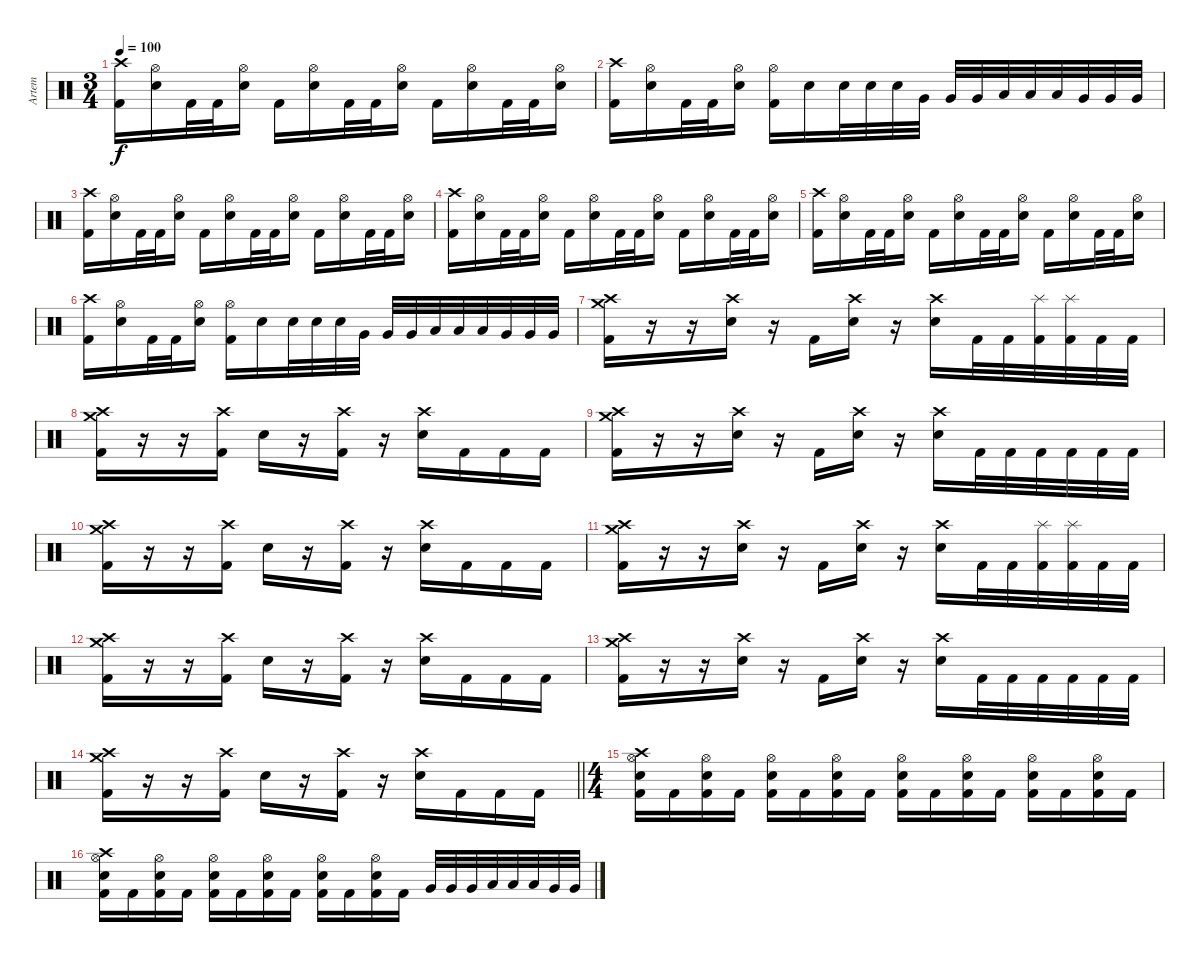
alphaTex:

\track ("Artem" "Artem") {instrument percussion}
\staff {score}
\articulation defaults
\ts (3 4)
\tempo 100
\clef neutral
\ks c
("Kick (hit) 2" "Crash high (hit)").16{dy f} ("Snare (hit) 2" "Hi-Hat (open)").16 "Kick (hit) 2".32 "Kick (hit) 2".32 ("Snare (hit) 2" "Hi-Hat (open)").16 "Kick (hit) 2".16 ("Snare (hit) 2" "Hi-Hat (open)").16 "Kick (hit) 2".32 "Kick (hit) 2".32 ("Snare (hit) 2" "Hi-Hat (open)").16 "Kick (hit) 2".16 ("Snare (hit) 2" "Hi-Hat (open)").16 "Kick (hit) 2".32 "Kick (hit) 2".32 ("Snare (hit) 2" "Hi-Hat (open)").16 |
("Kick (hit) 2" "Crash high (hit)").16 ("Snare (hit) 2" "Hi-Hat (open)").16 "Kick (hit) 2".32 "Kick (hit) 2".32 ("Snare (hit) 2" "Hi-Hat (open)").16 ("Kick (hit) 2" "Hi-Hat (open)").16 "Snare (hit) 2".16 "Snare (hit) 2".32 "Snare (hit) 2".32 "Snare (hit) 2".32 "Very Low Tom (hit)".32 "Very Low Tom (hit)".32 "Very Low Tom (hit)".32 "Low Floor Tom (hit)".32 "Low Floor Tom (hit)".32 "Low Floor Tom (hit)".32 "Very Low Tom (hit)".32 "Very Low Tom (hit)".32 "Very Low Tom (hit)".32 |
("Kick (hit) 2" "Crash high (hit)").16 ("Snare (hit) 2" "Hi-Hat (open)").16 "Kick (hit) 2".32 "Kick (hit) 2".32 ("Snare (hit) 2" "Hi-Hat (open)").16 "Kick (hit) 2".16 ("Snare (hit) 2" "Hi-Hat (open)").16 "Kick (hit) 2".32 "Kick (hit) 2".32 ("Snare (hit) 2" "Hi-Hat (open)").16 "Kick (hit) 2".16 ("Snare (hit) 2" "Hi-Hat (open)").16 "Kick (hit) 2".32 "Kick (hit) 2".32 ("Snare (hit) 2" "Hi-Hat (open)").16 |
("Kick (hit) 2" "Crash high (hit)").16 ("Snare (hit) 2" "Hi-Hat (open)").16 "Kick (hit) 2".32 "Kick (hit) 2".32 ("Snare (hit) 2" "Hi-Hat (open)").16 "Kick (hit) 2".16 ("Snare (hit) 2" "Hi-Hat (open)").16 "Kick (hit) 2".32 "Kick (hit) 2".32 ("Snare (hit) 2" "Hi-Hat (open)").16 "Kick (hit) 2".16 ("Snare (hit) 2" "Hi-Hat (open)").16 "Kick (hit) 2".32 "Kick (hit) 2".32 ("Snare (hit) 2" "Hi-Hat (open)").16 |
("Kick (hit) 2" "Crash high (hit)").16 ("Snare (hit) 2" "Hi-Hat (open)").16 "Kick (hit) 2".32 "Kick (hit) 2".32 ("Snare (hit) 2" "Hi-Hat (open)").16 "Kick (hit) 2".16 ("Snare (hit) 2" "Hi-Hat (open)").16 "Kick (hit) 2".32 "Kick (hit) 2".32 ("Snare (hit) 2" "Hi-Hat (open)").16 "Kick (hit) 2".16 ("Snare (hit) 2" "Hi-Hat (open)").16 "Kick (hit) 2".32 "Kick (hit) 2".32 ("Snare (hit) 2" "Hi-Hat (open)").16 |
("Kick (hit) 2" "Crash high (hit)").16 ("Snare (hit) 2" "Hi-Hat (open)").16 "Kick (hit) 2".32 "Kick (hit) 2".32 ("Snare (hit) 2" "Hi-Hat (open)").16 ("Kick (hit) 2" "Hi-Hat (open)").16 "Snare (hit) 2".16 "Snare (hit) 2".32 "Snare (hit) 2".32 "Snare (hit) 2".32 "Very Low Tom (hit)".32 "Very Low Tom (hit)".32 "Very Low Tom (hit)".32 "Low Floor Tom (hit)".32 "Low Floor Tom (hit)".32 "Low Floor Tom (hit)".32 "Very Low Tom (hit)".32 "Very Low Tom (hit)".32 "Very Low Tom (hit)".32 |
("Kick (hit) 2" "Crash high (hit)" "Crash medium (hit)").16 r.16 r.16 ("Electric Snare (hit)" "Crash high (hit)").16 r.16 "Kick (hit) 2".16 ("Electric Snare (hit)" "Crash high (hit)").16 r.16 ("Electric Snare (hit)" "Crash high (hit)").16 "Kick (hit) 2".32 "Kick (hit) 2".32 ("Kick (hit) 2" "Splash (hit)").32 ("Kick (hit) 2" "Splash (hit)").32 "Kick (hit) 2".32 "Kick (hit) 2".32 |
("Kick (hit) 2" "Crash high (hit)" "Crash medium (hit)").16 r.16 r.16 ("Kick (hit) 2" "Crash high (hit)").16 "Electric Snare (hit)".16 r.16 ("Kick (hit) 2" "Crash high (hit)").16 r.16 ("Electric Snare (hit)" "Crash high (hit)").16 "Kick (hit) 2".16 "Kick (hit) 2".16 "Kick (hit) 2".16 |
("Kick (hit) 2" "Crash high (hit)" "Crash medium (hit)").16 r.16 r.16 ("Electric Snare (hit)" "Crash high (hit)").16 r.16 "Kick (hit) 2".16 ("Electric Snare (hit)" "Crash high (hit)").16 r.16 ("Electric Snare (hit)" "Crash high (hit)").16 "Kick (hit) 2".32 "Kick (hit) 2".32 "Kick (hit) 2".32 "Kick (hit) 2".32 "Kick (hit) 2".32 "Kick (hit) 2".32 |
("Kick (hit) 2" "Crash high (hit)" "Crash medium (hit)").16 r.16 r.16 ("Kick (hit) 2" "Crash high (hit)").16 "Electric Snare (hit)".16 r.16 ("Kick (hit) 2" "Crash high (hit)").16 r.16 ("Electric Snare (hit)" "Crash high (hit)").16 "Kick (hit) 2".16 "Kick (hit) 2".16 "Kick (hit) 2".16 |
("Kick (hit) 2" "Crash high (hit)" "Crash medium (hit)").16 r.16 r.16 ("Electric Snare (hit)" "Crash high (hit)").16 r.16 "Kick (hit) 2".16 ("Electric Snare (hit)" "Crash high (hit)").16 r.16 ("Electric Snare (hit)" "Crash high (hit)").16 "Kick (hit) 2".32 "Kick (hit) 2".32 ("Kick (hit) 2" "Splash (hit)").32 ("Kick (hit) 2" "Splash (hit)").32 "Kick (hit) 2".32 "Kick (hit) 2".32 |
("Kick (hit) 2" "Crash high (hit)" "Crash medium (hit)").16 r.16 r.16 ("Kick (hit) 2" "Crash high (hit)").16 "Electric Snare (hit)".16 r.16 ("Kick (hit) 2" "Crash high (hit)").16 r.16 ("Electric Snare (hit)" "Crash high (hit)").16 "Kick (hit) 2".16 "Kick (hit) 2".16 "Kick (hit) 2".16 |
("Kick (hit) 2" "Crash high (hit)" "Crash medium (hit)").16 r.16 r.16 ("Electric Snare (hit)" "Crash high (hit)").16 r.16 "Kick (hit) 2".16 ("Electric Snare (hit)" "Crash high (hit)").16 r.16 ("Electric Snare (hit)" "Crash high (hit)").16 "Kick (hit) 2".32 "Kick (hit) 2".32 "Kick (hit) 2".32 "Kick (hit) 2".32 "Kick (hit) 2".32 "Kick (hit) 2".32 |
\barLineRight lightlight
("Kick (hit) 2" "Crash high (hit)" "Crash medium (hit)").16 r.16 r.16 ("Kick (hit) 2" "Crash high (hit)").16 "Electric Snare (hit)".16 r.16 ("Kick (hit) 2" "Crash high (hit)").16 r.16 ("Electric Snare (hit)" "Crash high (hit)").16 "Kick (hit) 2".16 "Kick (hit) 2".16 "Kick (hit) 2".16 |
\ts (4 4)
\section ("" "")
("Kick (hit) 2" "Hi-Hat (open)" "Snare (hit) 2" "Crash high (hit)").16 "Kick (hit) 2".16 ("Kick (hit) 2" "Hi-Hat (open)" "Snare (hit) 2").16 "Kick (hit) 2".16 ("Kick (hit) 2" "Hi-Hat (open)" "Snare (hit) 2").16 "Kick (hit) 2".16 ("Kick (hit) 2" "Hi-Hat (open)" "Snare (hit) 2").16 "Kick (hit) 2".16 ("Kick (hit) 2" "Hi-Hat (open)" "Snare (hit) 2").16 "Kick (hit) 2".16 ("Kick (hit) 2" "Hi-Hat (open)" "Snare (hit) 2").16 "Kick (hit) 2".16 ("Kick (hit) 2" "Hi-Hat (open)" "Snare (hit) 2").16 "Kick (hit) 2".16 ("Kick (hit) 2" "Hi-Hat (open)" "Snare (hit) 2").16 "Kick (hit) 2".16 |
("Kick (hit) 2" "Hi-Hat (open)" "Snare (hit) 2" "Crash high (hit)").16 "Kick (hit) 2".16 ("Kick (hit) 2" "Hi-Hat (open)" "Snare (hit) 2").16 "Kick (hit) 2".16 ("Kick (hit) 2" "Hi-Hat (open)" "Snare (hit) 2").16 "Kick (hit) 2".16 ("Kick (hit) 2" "Hi-Hat (open)" "Snare (hit) 2").16 "Kick (hit) 2".16 ("Kick (hit) 2" "Hi-Hat (open)" "Snare (hit) 2").16 "Kick (hit) 2".16 ("Kick (hit) 2" "Hi-Hat (open)" "Snare (hit) 2").16 "Kick (hit) 2".16 "Very Low Tom (hit)".32 "Very Low Tom (hit)".32 "Very Low Tom (hit)".32 "Low Floor Tom (hit)".32 "Low Floor Tom (hit)".32 "Low Floor Tom (hit)".32 "Very Low Tom (hit)".32 "Very Low Tom (hit)".32
